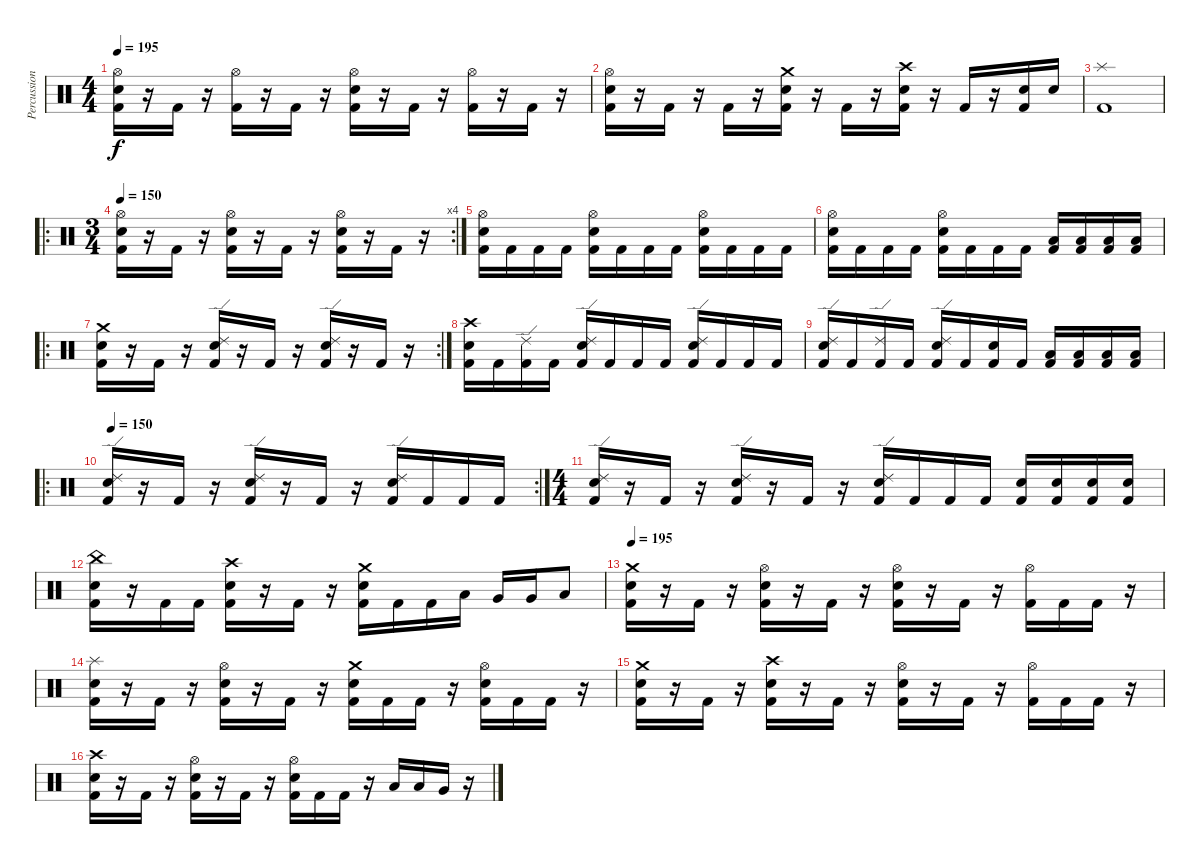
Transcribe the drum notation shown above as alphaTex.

\track ("Percussion" "Percussion") {instrument percussion}
\staff {score}
\articulation defaults
\ts (4 4)
\tempo 195
\clef neutral
\ks c
("Hi-Hat (open)" "Electric Snare (hit)" "Kick (hit) 2").16{dy f} r.16 "Kick (hit) 2".16 r.16 ("Hi-Hat (open)" "Kick (hit) 2").16 r.16 "Kick (hit) 2".16 r.16 ("Hi-Hat (open)" "Electric Snare (hit)" "Kick (hit) 2").16 r.16 "Kick (hit) 2".16 r.16 ("Hi-Hat (open)" "Kick (hit) 2").16 r.16 "Kick (hit) 2".16 r.16 |
("Hi-Hat (open)" "Electric Snare (hit)" "Kick (hit) 2").16 r.16 "Kick (hit) 2".16 r.16 "Kick (hit) 2".16 r.16 ("Crash medium (hit)" "Electric Snare (hit)" "Kick (hit) 2").16 r.16 "Kick (hit) 2".16 r.16 ("Crash high (hit)" "Electric Snare (hit)" "Kick (hit) 2").16 r.16 "Kick (hit) 2".16 r.16 ("Electric Snare (hit)" "Kick (hit) 2").16 "Electric Snare (hit)".16 |
("Splash (hit)" "Kick (hit) 2").1 |
\ro
\rc 4
\ts (3 4)
\tempo 150
("Hi-Hat (open)" "Electric Snare (hit)" "Kick (hit) 2").16 r.16 "Kick (hit) 2".16 r.16 ("Hi-Hat (open)" "Electric Snare (hit)" "Kick (hit) 2").16 r.16 "Kick (hit) 2".16 r.16 ("Hi-Hat (open)" "Electric Snare (hit)" "Kick (hit) 2").16 r.16 "Kick (hit) 2".16 r.16 |
("Hi-Hat (open)" "Electric Snare (hit)" "Kick (hit) 2").16 "Kick (hit) 2".16 "Kick (hit) 2".16 "Kick (hit) 2".16 ("Hi-Hat (open)" "Electric Snare (hit)" "Kick (hit) 2").16 "Kick (hit) 2".16 "Kick (hit) 2".16 "Kick (hit) 2".16 ("Hi-Hat (open)" "Electric Snare (hit)" "Kick (hit) 2").16 "Kick (hit) 2".16 "Kick (hit) 2".16 "Kick (hit) 2".16 |
("Hi-Hat (open)" "Electric Snare (hit)" "Kick (hit) 2").16 "Kick (hit) 2".16 "Kick (hit) 2".16 "Kick (hit) 2".16 ("Hi-Hat (open)" "Electric Snare (hit)" "Kick (hit) 2").16 "Kick (hit) 2".16 "Kick (hit) 2".16 "Kick (hit) 2".16 ("Low Tom (hit)" "Kick (hit) 2").16 ("Low Tom (hit)" "Kick (hit) 2").16 ("Low Tom (hit)" "Kick (hit) 2").16 ("Low Tom (hit)" "Kick (hit) 2").16 |
\ro
\rc 2
("Crash medium (hit)" "Electric Snare (hit)" "Kick (hit) 2").16 r.16 "Kick (hit) 2".16 r.16 ("Ride (edge) 2" "Electric Snare (hit)" "Kick (hit) 2").16 r.16 "Kick (hit) 2".16 r.16 ("Ride (edge) 2" "Electric Snare (hit)" "Kick (hit) 2").16 r.16 "Kick (hit) 2".16 r.16 |
("Crash high (hit)" "Electric Snare (hit)" "Kick (hit) 2").16 "Kick (hit) 2".16 ("Ride (edge) 2" "Kick (hit) 2").16 "Kick (hit) 2".16 ("Ride (edge) 2" "Electric Snare (hit)" "Kick (hit) 2").16 "Kick (hit) 2".16 "Kick (hit) 2".16 "Kick (hit) 2".16 ("Ride (edge) 2" "Electric Snare (hit)" "Kick (hit) 2").16 "Kick (hit) 2".16 "Kick (hit) 2".16 "Kick (hit) 2".16 |
("Ride (edge) 2" "Electric Snare (hit)" "Kick (hit) 2").16 "Kick (hit) 2".16 ("Ride (edge) 2" "Kick (hit) 2").16 "Kick (hit) 2".16 ("Ride (edge) 2" "Electric Snare (hit)" "Kick (hit) 2").16 "Kick (hit) 2".16 ("Electric Snare (hit)" "Kick (hit) 2").16 "Kick (hit) 2".16 ("Low Floor Tom (hit)" "Kick (hit) 2").16 ("Low Floor Tom (hit)" "Kick (hit) 2").16 ("Low Floor Tom (hit)" "Kick (hit) 2").16 ("Low Floor Tom (hit)" "Kick (hit) 2").16 |
\ro
\rc 2
\tempo 150
("Ride (edge) 2" "Electric Snare (hit)" "Kick (hit) 2").16 r.16 "Kick (hit) 2".16 r.16 ("Ride (edge) 2" "Electric Snare (hit)" "Kick (hit) 2").16 r.16 "Kick (hit) 2".16 r.16 ("Ride (edge) 2" "Electric Snare (hit)" "Kick (hit) 2").16 "Kick (hit) 2".16 "Kick (hit) 2".16 "Kick (hit) 2".16 |
\ts (4 4)
("Ride (edge) 2" "Electric Snare (hit)" "Kick (hit) 2").16 r.16 "Kick (hit) 2".16 r.16 ("Ride (edge) 2" "Electric Snare (hit)" "Kick (hit) 2").16 r.16 "Kick (hit) 2".16 r.16 ("Ride (edge) 2" "Electric Snare (hit)" "Kick (hit) 2").16 "Kick (hit) 2".16 "Kick (hit) 2".16 "Kick (hit) 2".16 ("Electric Snare (hit)" "Kick (hit) 2").16 ("Electric Snare (hit)" "Kick (hit) 2").16 ("Electric Snare (hit)" "Kick (hit) 2").16 ("Electric Snare (hit)" "Kick (hit) 2").16 |
("China (hit)" "Electric Snare (hit)" "Kick (hit) 2").16 r.16 "Kick (hit) 2".16 "Kick (hit) 2".16 ("Crash high (hit)" "Electric Snare (hit)" "Kick (hit) 2").16 r.16 "Kick (hit) 2".16 r.16 ("Crash medium (hit)" "Electric Snare (hit)" "Kick (hit) 2").16 "Kick (hit) 2".16 "Kick (hit) 2".16 "Low Tom (hit)".16 "Very Low Tom (hit)".16 "Very Low Tom (hit)".16 "Low Floor Tom (hit)".8 |
\tempo 195
("Crash medium (hit)" "Electric Snare (hit)" "Kick (hit) 2").16 r.16 "Kick (hit) 2".16 r.16 ("Hi-Hat (open)" "Electric Snare (hit)" "Kick (hit) 2").16 r.16 "Kick (hit) 2".16 r.16 ("Hi-Hat (open)" "Electric Snare (hit)" "Kick (hit) 2").16 r.16 "Kick (hit) 2".16 r.16 ("Hi-Hat (open)" "Kick (hit) 2").16 "Kick (hit) 2".16 "Kick (hit) 2".16 r.16 |
("Splash (hit)" "Electric Snare (hit)" "Kick (hit) 2").16 r.16 "Kick (hit) 2".16 r.16 ("Hi-Hat (open)" "Electric Snare (hit)" "Kick (hit) 2").16 r.16 "Kick (hit) 2".16 r.16 ("Crash medium (hit)" "Electric Snare (hit)" "Kick (hit) 2").16 "Kick (hit) 2".16 "Kick (hit) 2".16 r.16 ("Hi-Hat (open)" "Electric Snare (hit)" "Kick (hit) 2").16 "Kick (hit) 2".16 "Kick (hit) 2".16 r.16 |
("Crash medium (hit)" "Electric Snare (hit)" "Kick (hit) 2").16 r.16 "Kick (hit) 2".16 r.16 ("Crash high (hit)" "Electric Snare (hit)" "Kick (hit) 2").16 r.16 "Kick (hit) 2".16 r.16 ("Hi-Hat (open)" "Electric Snare (hit)" "Kick (hit) 2").16 r.16 "Kick (hit) 2".16 r.16 ("Hi-Hat (open)" "Kick (hit) 2").16 "Kick (hit) 2".16 "Kick (hit) 2".16 r.16 |
("Crash high (hit)" "Electric Snare (hit)" "Kick (hit) 2").16 r.16 "Kick (hit) 2".16 r.16 ("Hi-Hat (open)" "Electric Snare (hit)" "Kick (hit) 2").16 r.16 "Kick (hit) 2".16 r.16 ("Hi-Hat (open)" "Electric Snare (hit)" "Kick (hit) 2").16 "Kick (hit) 2".16 "Kick (hit) 2".16 r.16 "Low Tom (hit)".16 "Low Tom (hit)".16 "Very Low Tom (hit)".16 r.16
